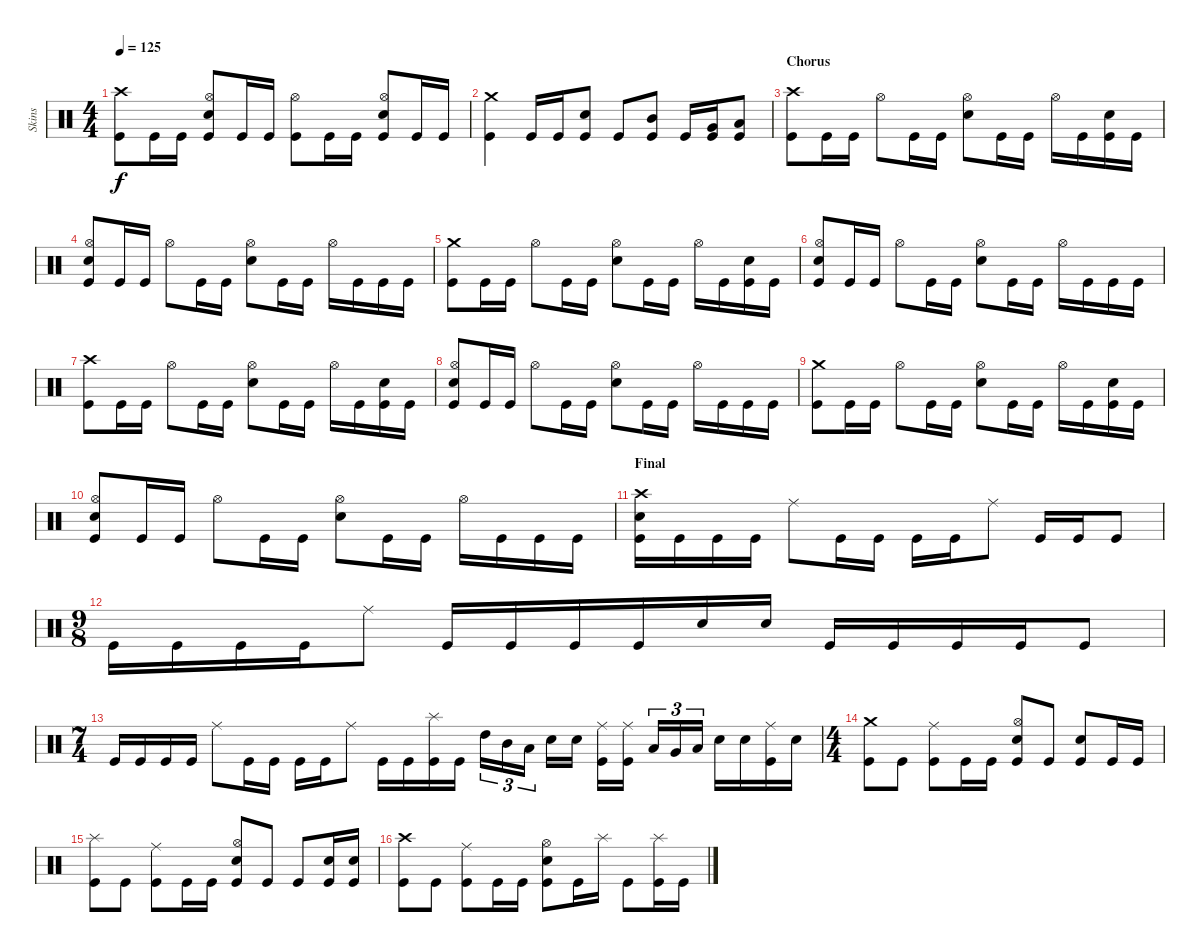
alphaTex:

\track ("Skins" "Skins") {instrument percussion}
\staff {score}
\articulation defaults
\ts (4 4)
\tempo 125
\clef neutral
\ks c
("Crash high (hit)" "Kick (hit)").8{dy f} "Kick (hit)".16 "Kick (hit)".16 ("Hi-Hat (open)" "Electric Snare (hit)" "Kick (hit)").8 "Kick (hit)".16 "Kick (hit)".16 ("Hi-Hat (open)" "Kick (hit)").8 "Kick (hit)".16 "Kick (hit)".16 ("Hi-Hat (open)" "Electric Snare (hit)" "Kick (hit)").8 "Kick (hit)".16 "Kick (hit)".16 |
("Crash medium (hit)" "Kick (hit)").4 "Kick (hit)".16 "Kick (hit)".16 ("Snare (hit) 2" "Kick (hit)").8 "Kick (hit)".8 ("Mid Tom (hit)" "Kick (hit)").8 "Kick (hit)".16 ("Very Low Tom (hit)" "Kick (hit)").16 ("Low Floor Tom (hit)" "Kick (hit)").8 |
\section ("" "Chorus")
("Crash high (hit)" "Kick (hit)").8 "Kick (hit)".16 "Kick (hit)".16 "Hi-Hat (open)".8 "Kick (hit)".16 "Kick (hit)".16 ("Hi-Hat (open)" "Electric Snare (hit)").8 "Kick (hit)".16 "Kick (hit)".16 "Hi-Hat (open)".16 "Kick (hit)".16 ("Snare (hit) 2" "Kick (hit)").16 "Kick (hit)".16 |
("Hi-Hat (open)" "Electric Snare (hit)" "Kick (hit)").8 "Kick (hit)".16 "Kick (hit)".16 "Hi-Hat (open)".8 "Kick (hit)".16 "Kick (hit)".16 ("Hi-Hat (open)" "Electric Snare (hit)").8 "Kick (hit)".16 "Kick (hit)".16 "Hi-Hat (open)".16 "Kick (hit)".16 "Kick (hit)".16 "Kick (hit)".16 |
("Crash medium (hit)" "Kick (hit)").8 "Kick (hit)".16 "Kick (hit)".16 "Hi-Hat (open)".8 "Kick (hit)".16 "Kick (hit)".16 ("Hi-Hat (open)" "Electric Snare (hit)").8 "Kick (hit)".16 "Kick (hit)".16 "Hi-Hat (open)".16 "Kick (hit)".16 ("Snare (hit) 2" "Kick (hit)").16 "Kick (hit)".16 |
("Hi-Hat (open)" "Electric Snare (hit)" "Kick (hit)").8 "Kick (hit)".16 "Kick (hit)".16 "Hi-Hat (open)".8 "Kick (hit)".16 "Kick (hit)".16 ("Hi-Hat (open)" "Electric Snare (hit)").8 "Kick (hit)".16 "Kick (hit)".16 "Hi-Hat (open)".16 "Kick (hit)".16 "Kick (hit)".16 "Kick (hit)".16 |
("Crash high (hit)" "Kick (hit)").8 "Kick (hit)".16 "Kick (hit)".16 "Hi-Hat (open)".8 "Kick (hit)".16 "Kick (hit)".16 ("Hi-Hat (open)" "Electric Snare (hit)").8 "Kick (hit)".16 "Kick (hit)".16 "Hi-Hat (open)".16 "Kick (hit)".16 ("Snare (hit) 2" "Kick (hit)").16 "Kick (hit)".16 |
("Hi-Hat (open)" "Electric Snare (hit)" "Kick (hit)").8 "Kick (hit)".16 "Kick (hit)".16 "Hi-Hat (open)".8 "Kick (hit)".16 "Kick (hit)".16 ("Hi-Hat (open)" "Electric Snare (hit)").8 "Kick (hit)".16 "Kick (hit)".16 "Hi-Hat (open)".16 "Kick (hit)".16 "Kick (hit)".16 "Kick (hit)".16 |
("Crash medium (hit)" "Kick (hit)").8 "Kick (hit)".16 "Kick (hit)".16 "Hi-Hat (open)".8 "Kick (hit)".16 "Kick (hit)".16 ("Hi-Hat (open)" "Electric Snare (hit)").8 "Kick (hit)".16 "Kick (hit)".16 "Hi-Hat (open)".16 "Kick (hit)".16 ("Snare (hit) 2" "Kick (hit)").16 "Kick (hit)".16 |
("Hi-Hat (open)" "Electric Snare (hit)" "Kick (hit)").8 "Kick (hit)".16 "Kick (hit)".16 "Hi-Hat (open)".8 "Kick (hit)".16 "Kick (hit)".16 ("Hi-Hat (open)" "Electric Snare (hit)").8 "Kick (hit)".16 "Kick (hit)".16 "Hi-Hat (open)".16 "Kick (hit)".16 "Kick (hit)".16 "Kick (hit)".16 |
\section ("" "Final")
("Crash high (hit)" "Snare (hit) 2" "Kick (hit)").16 "Kick (hit)".16 "Kick (hit)".16 "Kick (hit)".16 "Ride (middle)".8 "Kick (hit)".16 "Kick (hit)".16 "Kick (hit)".16 "Kick (hit)".16 "Ride (middle)".8 "Kick (hit)".16 "Kick (hit)".16 "Kick (hit)".8 |
\ts (9 8)
"Kick (hit)".16 "Kick (hit)".16 "Kick (hit)".16 "Kick (hit)".16 "Ride (middle)".8 "Kick (hit)".16 "Kick (hit)".16 "Kick (hit)".16 "Kick (hit)".16 "Electric Snare (hit)".16 "Electric Snare (hit)".16 "Kick (hit)".16 "Kick (hit)".16 "Kick (hit)".16 "Kick (hit)".16 "Kick (hit)".8 |
\ts (7 4)
"Kick (hit)".16 "Kick (hit)".16 "Kick (hit)".16 "Kick (hit)".16 "Ride (middle)".8 "Kick (hit)".16 "Kick (hit)".16 "Kick (hit)".16 "Kick (hit)".16 "Ride (middle)".8 "Kick (hit)".16 "Kick (hit)".16 ("Splash (hit)" "Kick (hit)").16 "Kick (hit)".16 "High Tom (hit)".16{tu (3 2)} "Mid Tom (hit)".16{tu (3 2)} "Low Tom (hit)".16{tu (3 2)} "Electric Snare (hit)".16 "Electric Snare (hit)".16 ("Ride (middle)" "Kick (hit)").16 ("Ride (middle)" "Kick (hit)").16 "Low Tom (hit)".16{tu (3 2)} "Very Low Tom (hit)".16{tu (3 2)} "Low Floor Tom (hit)".16{tu (3 2)} "Snare (hit) 2".16 "Snare (hit) 2".16 ("Ride (middle)" "Kick (hit)").16 "Snare (hit) 2".16 |
\ts (4 4)
("Crash medium (hit)" "Kick (hit)").8 "Kick (hit)".8 ("Ride (middle)" "Kick (hit)").8 "Kick (hit)".16 "Kick (hit)".16 ("Hi-Hat (open)" "Snare (hit) 2" "Kick (hit)").8 "Kick (hit)".8 ("Snare (hit) 2" "Kick (hit)").8 "Kick (hit)".16 "Kick (hit)".16 |
("Splash (hit)" "Kick (hit)").8 "Kick (hit)".8 ("Ride (middle)" "Kick (hit)").8 "Kick (hit)".16 "Kick (hit)".16 ("Hi-Hat (open)" "Snare (hit) 2" "Kick (hit)").8 "Kick (hit)".8 "Kick (hit)".8 ("Snare (hit) 2" "Kick (hit)").16 ("Snare (hit) 2" "Kick (hit)").16 |
("Crash high (hit)" "Kick (hit)").8 "Kick (hit)".8 ("Ride (middle)" "Kick (hit)").8 "Kick (hit)".16 "Kick (hit)".16 ("Hi-Hat (open)" "Snare (hit) 2" "Kick (hit)").8 "Kick (hit)".16 "Splash (hit)".16 "Kick (hit)".8 ("Splash (hit)" "Kick (hit)").16 "Kick (hit)".16
